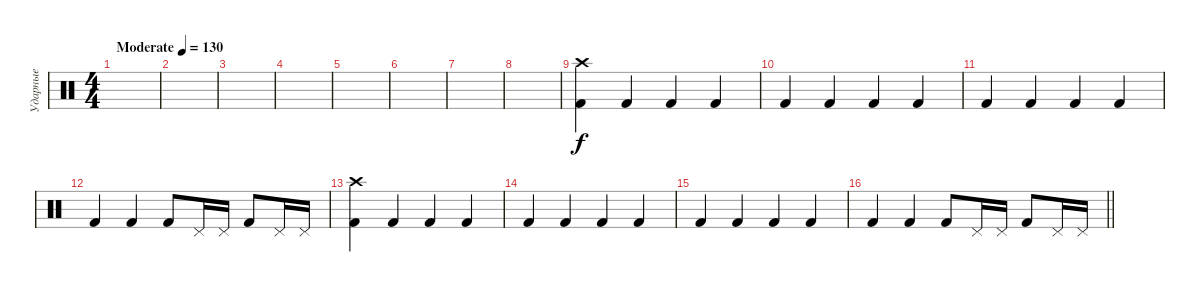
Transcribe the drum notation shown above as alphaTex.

\track ("Ударные" "Ударные") {instrument percussion}
\staff {score}
\articulation defaults
\ts (4 4)
\tempo (130 "Moderate")
\clef neutral
\ks c
|
|
|
|
|
|
|
|
("Kick (hit) 2" "Crash high (hit)").4 "Kick (hit) 2".4 "Kick (hit) 2".4 "Kick (hit) 2".4 |
"Kick (hit) 2".4 "Kick (hit) 2".4 "Kick (hit) 2".4 "Kick (hit) 2".4 |
"Kick (hit) 2".4 "Kick (hit) 2".4 "Kick (hit) 2".4 "Kick (hit) 2".4 |
"Kick (hit) 2".4 "Kick (hit) 2".4 "Kick (hit) 2".8 "Pedal Hi-Hat (hit)".16 "Pedal Hi-Hat (hit)".16 "Kick (hit) 2".8 "Pedal Hi-Hat (hit)".16 "Pedal Hi-Hat (hit)".16 |
("Kick (hit) 2" "Crash high (hit)").4 "Kick (hit) 2".4 "Kick (hit) 2".4 "Kick (hit) 2".4 |
"Kick (hit) 2".4 "Kick (hit) 2".4 "Kick (hit) 2".4 "Kick (hit) 2".4 |
"Kick (hit) 2".4 "Kick (hit) 2".4 "Kick (hit) 2".4 "Kick (hit) 2".4 |
\barLineRight lightlight "Kick (hit) 2".4 "Kick (hit) 2".4 "Kick (hit) 2".8 "Pedal Hi-Hat (hit)".16 "Pedal Hi-Hat (hit)".16 "Kick (hit) 2".8 "Pedal Hi-Hat (hit)".16 "Pedal Hi-Hat (hit)".16
